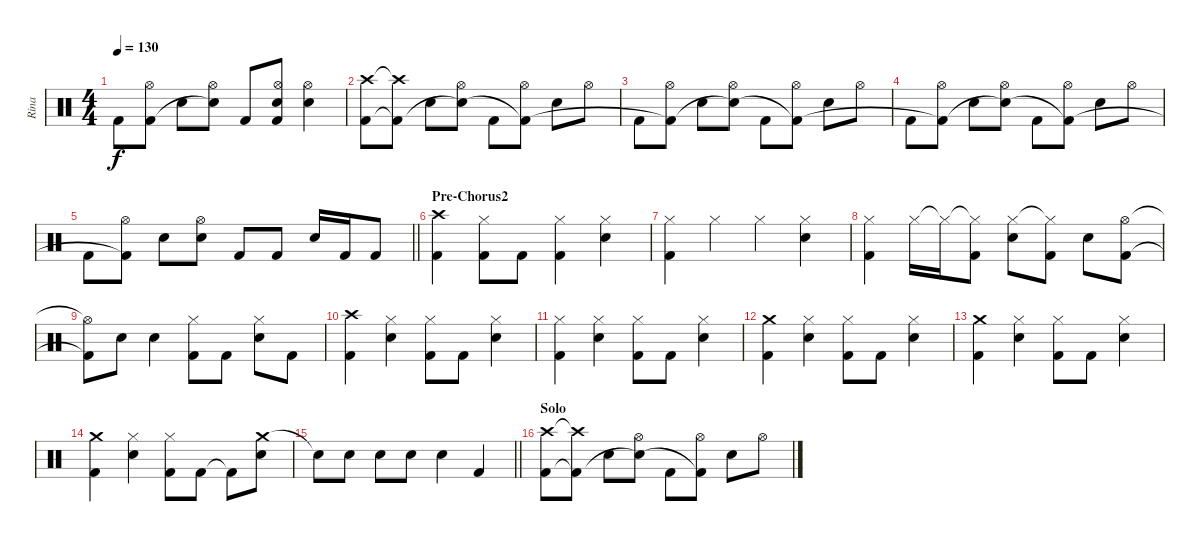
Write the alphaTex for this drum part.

\track ("Rina" "Rina") {instrument percussion}
\staff {score}
\articulation defaults
\ts (4 4)
\tempo 130
\clef neutral
\ks c "Kick (hit) 2".8{dy f}
("Hi-Hat (open)" "Kick (hit) 2"{t}).8 "Snare (hit) 2".8 ("Hi-Hat (open)" "Snare (hit) 2"{t}).8 "Kick (hit) 2".8 ("Hi-Hat (open)" "Snare (hit) 2" "Kick (hit) 2").8 ("Hi-Hat (open)" "Snare (hit) 2").4 |
("Crash high (hit)" "Kick (hit) 2").8 ("Crash high (hit)"{t} "Kick (hit) 2"{t}).8 "Snare (hit) 2".8 ("Hi-Hat (open)" "Snare (hit) 2"{t}).8 "Kick (hit) 2".8 ("Hi-Hat (open)" "Kick (hit) 2"{t}).8 "Snare (hit) 2".8 "Hi-Hat (open)".8 |
"Kick (hit) 2".8 ("Hi-Hat (open)" "Kick (hit) 2"{t}).8 "Snare (hit) 2".8 ("Hi-Hat (open)" "Snare (hit) 2"{t}).8 "Kick (hit) 2".8 ("Hi-Hat (open)" "Kick (hit) 2"{t}).8 "Snare (hit) 2".8 "Hi-Hat (open)".8 |
"Kick (hit) 2".8 ("Hi-Hat (open)" "Kick (hit) 2"{t}).8 "Snare (hit) 2".8 ("Hi-Hat (open)" "Snare (hit) 2"{t}).8 "Kick (hit) 2".8 ("Hi-Hat (open)" "Kick (hit) 2"{t}).8 "Snare (hit) 2".8 "Hi-Hat (open)".8 |
\barLineRight lightlight "Kick (hit) 2".8
("Hi-Hat (open)" "Kick (hit) 2"{t}).8 "Snare (hit) 2".8 ("Hi-Hat (open)" "Snare (hit) 2").8 "Kick (hit) 2".8 "Kick (hit) 2".8 "Snare (hit) 2".16 "Kick (hit) 2".16 "Kick (hit) 2".8 |
\section ("" "Pre-Chorus2")
("Crash high (hit)" "Kick (hit) 2").4 ("Hi-Hat (closed)" "Kick (hit) 2").8 "Kick (hit) 2".8 ("Hi-Hat (closed)" "Kick (hit) 2").4 ("Hi-Hat (closed)" "Snare (hit) 2").4 |
("Hi-Hat (closed)" "Kick (hit) 2").4 "Hi-Hat (closed)".4 "Hi-Hat (closed)".4 ("Hi-Hat (closed)" "Snare (hit) 2").4 |
("Hi-Hat (closed)" "Kick (hit) 2").4 "Hi-Hat (closed)".16 "Hi-Hat (closed)"{t}.16 ("Hi-Hat (closed)"{t} "Kick (hit) 2").8 ("Hi-Hat (closed)" "Snare (hit) 2").8 ("Hi-Hat (closed)"{t} "Kick (hit) 2").8 "Snare (hit) 2".8 ("Hi-Hat (open)" "Kick (hit) 2").8 |
("Hi-Hat (open)"{t} "Kick (hit) 2"{t}).8 "Snare (hit) 2".8 "Snare (hit) 2".4 ("Hi-Hat (closed)" "Kick (hit) 2").8 "Kick (hit) 2".8 ("Hi-Hat (closed)" "Snare (hit) 2").8 "Kick (hit) 2".8 |
("Crash high (hit)" "Kick (hit) 2").4 ("Hi-Hat (closed)" "Snare (hit) 2").4 ("Hi-Hat (closed)" "Kick (hit) 2").8 "Kick (hit) 2".8 ("Hi-Hat (closed)" "Snare (hit) 2").4 |
("Hi-Hat (closed)" "Kick (hit) 2").4 ("Hi-Hat (closed)" "Snare (hit) 2").4 ("Hi-Hat (closed)" "Kick (hit) 2").8 "Kick (hit) 2".8 ("Hi-Hat (closed)" "Snare (hit) 2").4 |
("Crash medium (hit)" "Kick (hit) 2").4 ("Hi-Hat (closed)" "Snare (hit) 2").4 ("Hi-Hat (closed)" "Kick (hit) 2").8 "Kick (hit) 2".8 ("Hi-Hat (closed)" "Snare (hit) 2").4 |
("Crash medium (hit)" "Kick (hit) 2").4 ("Hi-Hat (closed)" "Snare (hit) 2").4 ("Hi-Hat (closed)" "Kick (hit) 2").8 "Kick (hit) 2".8 ("Hi-Hat (closed)" "Snare (hit) 2").4 |
("Crash medium (hit)" "Kick (hit) 2").4 ("Hi-Hat (closed)" "Snare (hit) 2").4 ("Hi-Hat (closed)" "Kick (hit) 2").8 "Kick (hit) 2".8 "Kick (hit) 2"{t}.8 ("Crash medium (hit)" "Snare (hit) 2").8 |
\barLineRight lightlight "Snare (hit) 2"{t}.8 "Snare (hit) 2".8 "Snare (hit) 2".8 "Snare (hit) 2".8 "Snare (hit) 2".4 "Kick (hit) 2".4
|
\section ("" "Solo")
("Crash high (hit)" "Kick (hit) 2").8 ("Crash high (hit)"{t} "Kick (hit) 2"{t}).8 "Snare (hit) 2".8 ("Hi-Hat (open)" "Snare (hit) 2"{t}).8 "Kick (hit) 2".8 ("Hi-Hat (open)" "Kick (hit) 2"{t}).8 "Snare (hit) 2".8 "Hi-Hat (open)".8
